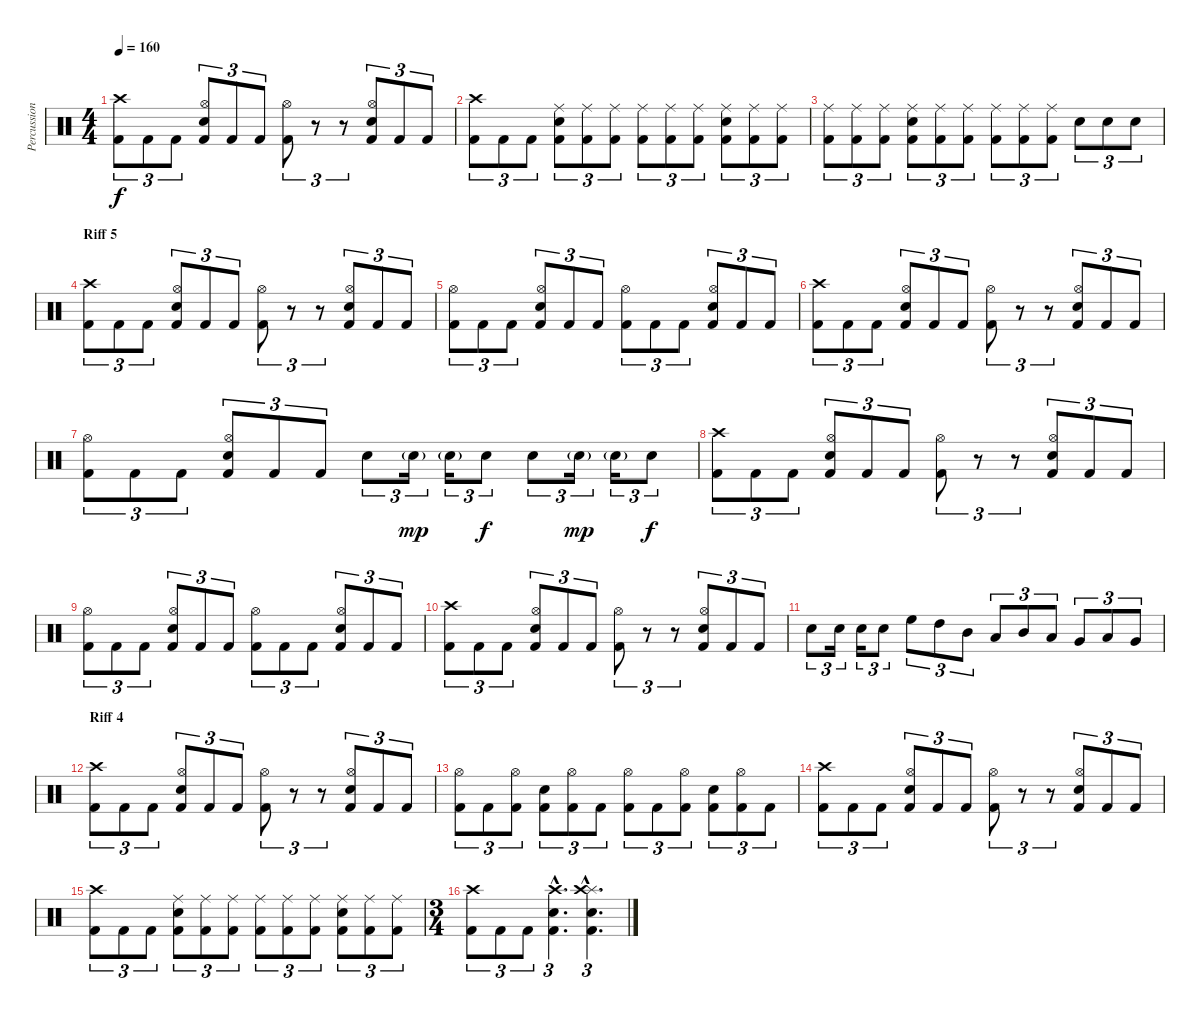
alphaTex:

\track ("Percussion" "Percussion") {instrument percussion}
\staff {score}
\articulation defaults
\ts (4 4)
\tempo 160
\clef neutral
\ks c
("Crash high (hit)" "Kick (hit) 2").8{tu (3 2) dy f} "Kick (hit) 2".8{tu (3 2)} "Kick (hit) 2".8{tu (3 2)} ("Hi-Hat (open)" "Electric Snare (hit)" "Kick (hit) 2").8{tu (3 2)} "Kick (hit) 2".8{tu (3 2)} "Kick (hit) 2".8{tu (3 2)} ("Hi-Hat (open)" "Kick (hit) 2").8{tu (3 2)} r.8{tu (3 2)} r.8{tu (3 2)} ("Hi-Hat (open)" "Electric Snare (hit)" "Kick (hit) 2").8{tu (3 2)} "Kick (hit) 2".8{tu (3 2)} "Kick (hit) 2".8{tu (3 2)} |
("Crash high (hit)" "Kick (hit) 2").8{tu (3 2)} "Kick (hit) 2".8{tu (3 2)} "Kick (hit) 2".8{tu (3 2)} ("Ride (middle)" "Electric Snare (hit)" "Kick (hit) 2").8{tu (3 2)} ("Ride (middle)" "Kick (hit) 2").8{tu (3 2)} ("Ride (middle)" "Kick (hit) 2").8{tu (3 2)} ("Ride (middle)" "Kick (hit) 2").8{tu (3 2)} ("Ride (middle)" "Kick (hit) 2").8{tu (3 2)} ("Ride (middle)" "Kick (hit) 2").8{tu (3 2)} ("Ride (middle)" "Electric Snare (hit)" "Kick (hit) 2").8{tu (3 2)} ("Ride (middle)" "Kick (hit) 2").8{tu (3 2)} ("Ride (middle)" "Kick (hit) 2").8{tu (3 2)} |
("Ride (middle)" "Kick (hit) 2").8{tu (3 2)} ("Ride (middle)" "Kick (hit) 2").8{tu (3 2)} ("Ride (middle)" "Kick (hit) 2").8{tu (3 2)} ("Ride (middle)" "Electric Snare (hit)" "Kick (hit) 2").8{tu (3 2)} ("Ride (middle)" "Kick (hit) 2").8{tu (3 2)} ("Ride (middle)" "Kick (hit) 2").8{tu (3 2)} ("Ride (middle)" "Kick (hit) 2").8{tu (3 2)} ("Ride (middle)" "Kick (hit) 2").8{tu (3 2)} ("Ride (middle)" "Kick (hit) 2").8{tu (3 2)} "Electric Snare (hit)".8{tu (3 2)} "Electric Snare (hit)".8{tu (3 2)} "Electric Snare (hit)".8{tu (3 2)} |
\section ("" "Riff 5")
("Crash high (hit)" "Kick (hit) 2").8{tu (3 2)} "Kick (hit) 2".8{tu (3 2)} "Kick (hit) 2".8{tu (3 2)} ("Hi-Hat (open)" "Electric Snare (hit)" "Kick (hit) 2").8{tu (3 2)} "Kick (hit) 2".8{tu (3 2)} "Kick (hit) 2".8{tu (3 2)} ("Hi-Hat (open)" "Kick (hit) 2").8{tu (3 2)} r.8{tu (3 2)} r.8{tu (3 2)} ("Hi-Hat (open)" "Electric Snare (hit)" "Kick (hit) 2").8{tu (3 2)} "Kick (hit) 2".8{tu (3 2)} "Kick (hit) 2".8{tu (3 2)} |
("Hi-Hat (open)" "Kick (hit) 2").8{tu (3 2)} "Kick (hit) 2".8{tu (3 2)} "Kick (hit) 2".8{tu (3 2)} ("Hi-Hat (open)" "Electric Snare (hit)" "Kick (hit) 2").8{tu (3 2)} "Kick (hit) 2".8{tu (3 2)} "Kick (hit) 2".8{tu (3 2)} ("Hi-Hat (open)" "Kick (hit) 2").8{tu (3 2)} "Kick (hit) 2".8{tu (3 2)} "Kick (hit) 2".8{tu (3 2)} ("Hi-Hat (open)" "Electric Snare (hit)" "Kick (hit) 2").8{tu (3 2)} "Kick (hit) 2".8{tu (3 2)} "Kick (hit) 2".8{tu (3 2)} |
("Crash high (hit)" "Kick (hit) 2").8{tu (3 2)} "Kick (hit) 2".8{tu (3 2)} "Kick (hit) 2".8{tu (3 2)} ("Hi-Hat (open)" "Electric Snare (hit)" "Kick (hit) 2").8{tu (3 2)} "Kick (hit) 2".8{tu (3 2)} "Kick (hit) 2".8{tu (3 2)} ("Hi-Hat (open)" "Kick (hit) 2").8{tu (3 2)} r.8{tu (3 2)} r.8{tu (3 2)} ("Hi-Hat (open)" "Electric Snare (hit)" "Kick (hit) 2").8{tu (3 2)} "Kick (hit) 2".8{tu (3 2)} "Kick (hit) 2".8{tu (3 2)} |
("Hi-Hat (open)" "Kick (hit) 2").8{tu (3 2)} "Kick (hit) 2".8{tu (3 2)} "Kick (hit) 2".8{tu (3 2)} ("Hi-Hat (open)" "Electric Snare (hit)" "Kick (hit) 2").8{tu (3 2)} "Kick (hit) 2".8{tu (3 2)} "Kick (hit) 2".8{tu (3 2)} "Electric Snare (hit)".8{tu (3 2)} "Electric Snare (hit)"{g}.16{tu (3 2) dy mp} "Electric Snare (hit)"{g}.16{tu (3 2)} "Electric Snare (hit)".8{tu (3 2) dy f} "Electric Snare (hit)".8{tu (3 2)} "Electric Snare (hit)"{g}.16{tu (3 2) dy mp} "Electric Snare (hit)"{g}.16{tu (3 2)} "Electric Snare (hit)".8{tu (3 2) dy f} |
("Crash high (hit)" "Kick (hit) 2").8{tu (3 2)} "Kick (hit) 2".8{tu (3 2)} "Kick (hit) 2".8{tu (3 2)} ("Hi-Hat (open)" "Electric Snare (hit)" "Kick (hit) 2").8{tu (3 2)} "Kick (hit) 2".8{tu (3 2)} "Kick (hit) 2".8{tu (3 2)} ("Hi-Hat (open)" "Kick (hit) 2").8{tu (3 2)} r.8{tu (3 2)} r.8{tu (3 2)} ("Hi-Hat (open)" "Electric Snare (hit)" "Kick (hit) 2").8{tu (3 2)} "Kick (hit) 2".8{tu (3 2)} "Kick (hit) 2".8{tu (3 2)} |
("Hi-Hat (open)" "Kick (hit) 2").8{tu (3 2)} "Kick (hit) 2".8{tu (3 2)} "Kick (hit) 2".8{tu (3 2)} ("Hi-Hat (open)" "Electric Snare (hit)" "Kick (hit) 2").8{tu (3 2)} "Kick (hit) 2".8{tu (3 2)} "Kick (hit) 2".8{tu (3 2)} ("Hi-Hat (open)" "Kick (hit) 2").8{tu (3 2)} "Kick (hit) 2".8{tu (3 2)} "Kick (hit) 2".8{tu (3 2)} ("Hi-Hat (open)" "Electric Snare (hit)" "Kick (hit) 2").8{tu (3 2)} "Kick (hit) 2".8{tu (3 2)} "Kick (hit) 2".8{tu (3 2)} |
("Crash high (hit)" "Kick (hit) 2").8{tu (3 2)} "Kick (hit) 2".8{tu (3 2)} "Kick (hit) 2".8{tu (3 2)} ("Hi-Hat (open)" "Electric Snare (hit)" "Kick (hit) 2").8{tu (3 2)} "Kick (hit) 2".8{tu (3 2)} "Kick (hit) 2".8{tu (3 2)} ("Hi-Hat (open)" "Kick (hit) 2").8{tu (3 2)} r.8{tu (3 2)} r.8{tu (3 2)} ("Hi-Hat (open)" "Electric Snare (hit)" "Kick (hit) 2").8{tu (3 2)} "Kick (hit) 2".8{tu (3 2)} "Kick (hit) 2".8{tu (3 2)} |
"Electric Snare (hit)".8{tu (3 2)} "Electric Snare (hit)".16{tu (3 2)} "Electric Snare (hit)".16{tu (3 2)} "Electric Snare (hit)".8{tu (3 2)} "High Floor Tom (hit)".8{tu (3 2)} "High Tom (hit)".8{tu (3 2)} "Mid Tom (hit)".8{tu (3 2)} "Low Tom (hit)".8{tu (3 2)} "Mid Tom (hit)".8{tu (3 2)} "Low Tom (hit)".8{tu (3 2)} "Very Low Tom (hit)".8{tu (3 2)} "Low Floor Tom (hit)".8{tu (3 2)} "Very Low Tom (hit)".8{tu (3 2)} |
\section ("" "Riff 4")
("Crash high (hit)" "Kick (hit) 2").8{tu (3 2)} "Kick (hit) 2".8{tu (3 2)} "Kick (hit) 2".8{tu (3 2)} ("Hi-Hat (open)" "Electric Snare (hit)" "Kick (hit) 2").8{tu (3 2)} "Kick (hit) 2".8{tu (3 2)} "Kick (hit) 2".8{tu (3 2)} ("Hi-Hat (open)" "Kick (hit) 2").8{tu (3 2)} r.8{tu (3 2)} r.8{tu (3 2)} ("Hi-Hat (open)" "Electric Snare (hit)" "Kick (hit) 2").8{tu (3 2)} "Kick (hit) 2".8{tu (3 2)} "Kick (hit) 2".8{tu (3 2)} |
("Hi-Hat (open)" "Kick (hit) 2").8{tu (3 2)} "Kick (hit) 2".8{tu (3 2)} ("Hi-Hat (open)" "Kick (hit) 2").8{tu (3 2)} ("Electric Snare (hit)" "Kick (hit) 2").8{tu (3 2)} ("Hi-Hat (open)" "Kick (hit) 2").8{tu (3 2)} "Kick (hit) 2".8{tu (3 2)} ("Hi-Hat (open)" "Kick (hit) 2").8{tu (3 2)} "Kick (hit) 2".8{tu (3 2)} ("Hi-Hat (open)" "Kick (hit) 2").8{tu (3 2)} ("Electric Snare (hit)" "Kick (hit) 2").8{tu (3 2)} ("Hi-Hat (open)" "Kick (hit) 2").8{tu (3 2)} "Kick (hit) 2".8{tu (3 2)} |
("Crash high (hit)" "Kick (hit) 2").8{tu (3 2)} "Kick (hit) 2".8{tu (3 2)} "Kick (hit) 2".8{tu (3 2)} ("Hi-Hat (open)" "Electric Snare (hit)" "Kick (hit) 2").8{tu (3 2)} "Kick (hit) 2".8{tu (3 2)} "Kick (hit) 2".8{tu (3 2)} ("Hi-Hat (open)" "Kick (hit) 2").8{tu (3 2)} r.8{tu (3 2)} r.8{tu (3 2)} ("Hi-Hat (open)" "Electric Snare (hit)" "Kick (hit) 2").8{tu (3 2)} "Kick (hit) 2".8{tu (3 2)} "Kick (hit) 2".8{tu (3 2)} |
("Crash high (hit)" "Kick (hit) 2").8{tu (3 2)} "Kick (hit) 2".8{tu (3 2)} "Kick (hit) 2".8{tu (3 2)} ("Ride (middle)" "Electric Snare (hit)" "Kick (hit) 2").8{tu (3 2)} ("Ride (middle)" "Kick (hit) 2").8{tu (3 2)} ("Ride (middle)" "Kick (hit) 2").8{tu (3 2)} ("Ride (middle)" "Kick (hit) 2").8{tu (3 2)} ("Ride (middle)" "Kick (hit) 2").8{tu (3 2)} ("Ride (middle)" "Kick (hit) 2").8{tu (3 2)} ("Ride (middle)" "Electric Snare (hit)" "Kick (hit) 2").8{tu (3 2)} ("Ride (middle)" "Kick (hit) 2").8{tu (3 2)} ("Ride (middle)" "Kick (hit) 2").8{tu (3 2)} |
\ts (3 4)
("Crash high (hit)" "Kick (hit) 2").8{tu (3 2)} "Kick (hit) 2".8{tu (3 2)} "Kick (hit) 2".8{tu (3 2)} ("Crash high (hit)"{hac} "Electric Snare (hit)"{hac} "Kick (hit) 2"{hac}).4{d tu (3 2)} ("Splash (hit)"{hac} "Crash high (hit)"{hac} "Electric Snare (hit)"{hac} "Kick (hit) 2"{hac}).4{d tu (3 2)}
